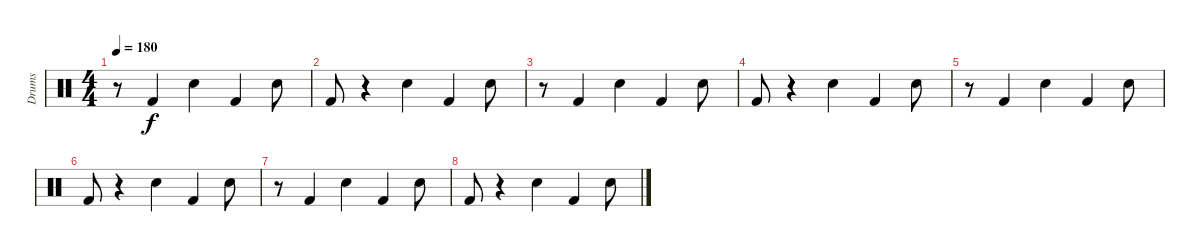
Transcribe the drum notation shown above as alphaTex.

\track ("Drums" "Drums") {instrument percussion}
\staff {score}
\articulation defaults
\ts (4 4)
\tempo 180
\clef neutral
\ks c
r.8{dy f} "Kick (hit) 2".4 "Snare (hit) 2".4 "Kick (hit) 2".4 "Snare (hit) 2".8 |
"Kick (hit) 2".8 r.4 "Snare (hit) 2".4 "Kick (hit) 2".4 "Snare (hit) 2".8 |
r.8 "Kick (hit) 2".4 "Snare (hit) 2".4 "Kick (hit) 2".4 "Snare (hit) 2".8 |
"Kick (hit) 2".8 r.4 "Snare (hit) 2".4 "Kick (hit) 2".4 "Snare (hit) 2".8 |
r.8 "Kick (hit) 2".4 "Snare (hit) 2".4 "Kick (hit) 2".4 "Snare (hit) 2".8 |
"Kick (hit) 2".8 r.4 "Snare (hit) 2".4 "Kick (hit) 2".4 "Snare (hit) 2".8 |
r.8 "Kick (hit) 2".4 "Snare (hit) 2".4 "Kick (hit) 2".4 "Snare (hit) 2".8 |
"Kick (hit) 2".8 r.4 "Snare (hit) 2".4 "Kick (hit) 2".4 "Snare (hit) 2".8
